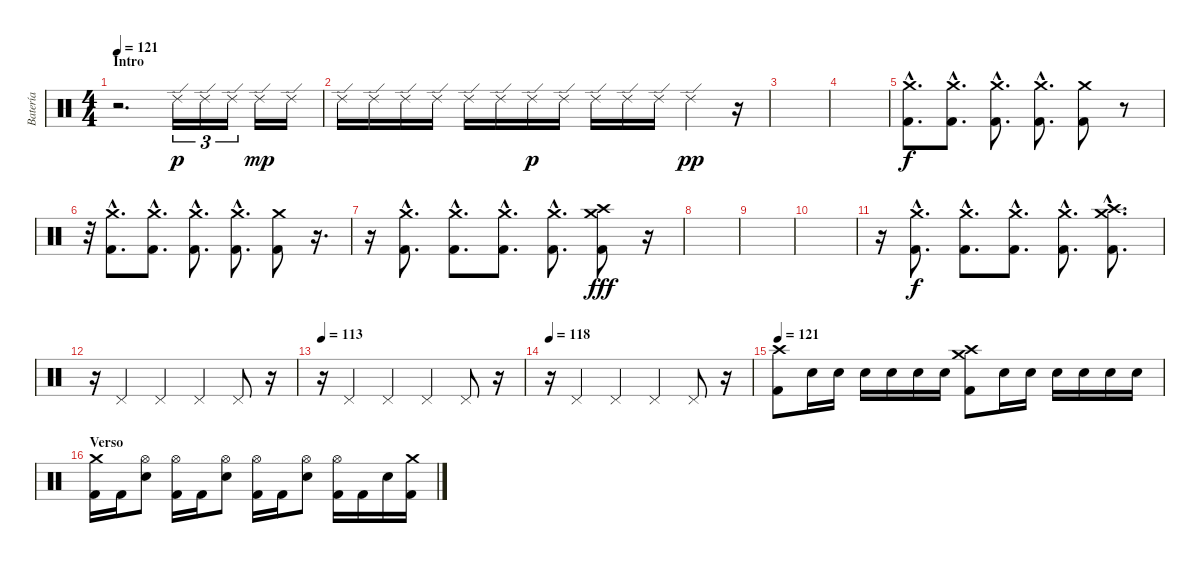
\track ("Batería" "Batería") {instrument percussion}
\staff {score}
\articulation defaults
\ts (4 4)
\section ("" "Intro")
\tempo 121
\tempo 118
\tempo 121
\clef neutral
\ks c
r.2{d dy p} "Ride (edge) 2".16{tu (3 2)} "Ride (edge) 2".16{tu (3 2)} "Ride (edge) 2".16{tu (3 2)} "Ride (edge) 2".16{dy mp} "Ride (edge) 2".16 |
"Ride (edge) 2".16 "Ride (edge) 2".16 "Ride (edge) 2".16 "Ride (edge) 2".16 "Ride (edge) 2".16 "Ride (edge) 2".16 "Ride (edge) 2".16{dy p} "Ride (edge) 2".16 "Ride (edge) 2".16 "Ride (edge) 2".16 "Ride (edge) 2".16 "Ride (edge) 2".4{dy pp} r.16 |
|
|
("Crash medium (hit)"{hac} "Kick (hit) 2"{hac}).8{d dy f} ("Crash medium (hit)"{hac} "Kick (hit) 2"{hac}).8{d} ("Crash medium (hit)"{hac} "Kick (hit) 2"{hac}).8{d} ("Crash medium (hit)"{hac} "Kick (hit) 2"{hac}).8{d} ("Crash medium (hit)" "Kick (hit) 2").8 r.8 |
r.32 ("Crash medium (hit)"{hac} "Kick (hit) 2"{hac}).8{d} ("Crash medium (hit)"{hac} "Kick (hit) 2"{hac}).8{d} ("Crash medium (hit)"{hac} "Kick (hit) 2"{hac}).8{d} ("Crash medium (hit)"{hac} "Kick (hit) 2"{hac}).8{d} ("Crash medium (hit)" "Kick (hit) 2").8 r.16{d} |
r.16 ("Crash medium (hit)"{hac} "Kick (hit) 2"{hac}).8{d} ("Crash medium (hit)"{hac} "Kick (hit) 2"{hac}).8{d} ("Crash medium (hit)"{hac} "Kick (hit) 2"{hac}).8{d} ("Crash medium (hit)"{hac} "Kick (hit) 2"{hac}).8{d} ("Crash medium (hit)" "Crash high (hit)" "Kick (hit) 2").8{dy fff} r.16 |
|
|
|
r.16 ("Crash medium (hit)"{hac} "Kick (hit) 2"{hac}).8{d dy f} ("Crash medium (hit)"{hac} "Kick (hit) 2"{hac}).8{d} ("Crash medium (hit)"{hac} "Kick (hit) 2"{hac}).8{d} ("Crash medium (hit)"{hac} "Kick (hit) 2"{hac}).8{d} ("Crash medium (hit)"{hac} "Crash high (hit)"{hac} "Kick (hit) 2"{hac}).8{d} |
r.16 "Pedal Hi-Hat (hit)".4 "Pedal Hi-Hat (hit)".4 "Pedal Hi-Hat (hit)".4 "Pedal Hi-Hat (hit)".8 r.16 |
\tempo 113
r.16 "Pedal Hi-Hat (hit)".4 "Pedal Hi-Hat (hit)".4 "Pedal Hi-Hat (hit)".4 "Pedal Hi-Hat (hit)".8 r.16 |
\tempo 118
r.16 "Pedal Hi-Hat (hit)".4 "Pedal Hi-Hat (hit)".4 "Pedal Hi-Hat (hit)".4 "Pedal Hi-Hat (hit)".8 r.16 |
\tempo 121
("Crash high (hit)" "Kick (hit) 2").8 "Electric Snare (hit)".16 "Electric Snare (hit)".16 "Electric Snare (hit)".16 "Electric Snare (hit)".16 "Electric Snare (hit)".16 "Electric Snare (hit)".16 ("Crash medium (hit)" "Crash high (hit)" "Kick (hit) 2").8 "Electric Snare (hit)".16 "Electric Snare (hit)".16 "Electric Snare (hit)".16 "Electric Snare (hit)".16 "Electric Snare (hit)".16 "Electric Snare (hit)".16 |
\section ("" "Verso")
("Crash medium (hit)" "Kick (hit) 2").16 "Kick (hit) 2".16 ("Hi-Hat (open)" "Electric Snare (hit)").8 ("Hi-Hat (open)" "Kick (hit) 2").16 "Kick (hit) 2".16 ("Hi-Hat (open)" "Electric Snare (hit)").8 ("Hi-Hat (open)" "Kick (hit) 2").16 "Kick (hit) 2".16 ("Hi-Hat (open)" "Electric Snare (hit)").8 ("Hi-Hat (open)" "Kick (hit) 2").16 "Kick (hit) 2".16 "Electric Snare (hit)".16 ("Crash medium (hit)" "Kick (hit) 2").16
